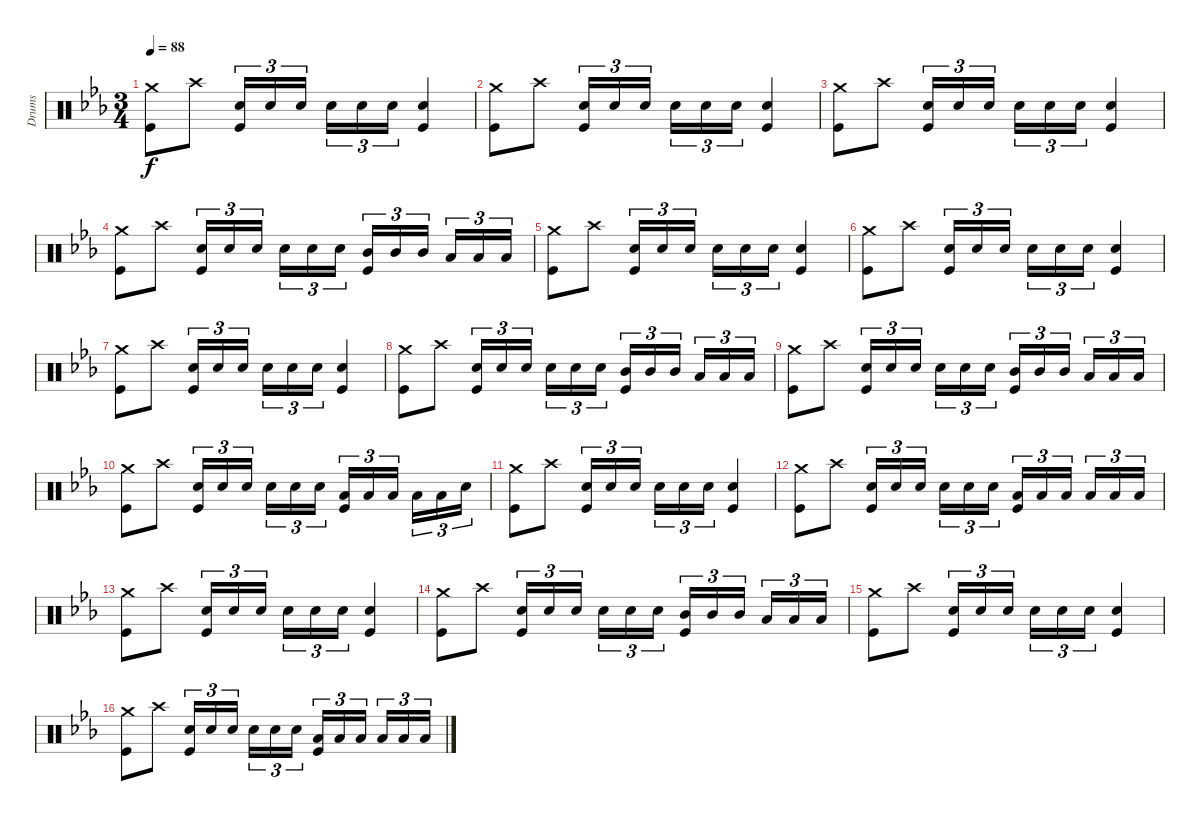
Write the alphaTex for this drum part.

\track ("Drums" "Drums") {instrument percussion}
\staff {score}
\articulation defaults
\ts (3 4)
\tempo 88
\clef neutral
\ks cminor
("Crash medium (hit)" "Kick (hit)").8{dy f} "Crash high (hit)".8 ("Snare (hit) 2" "Kick (hit)").16{tu (3 2)} "Snare (hit) 2".16{tu (3 2)} "Snare (hit) 2".16{tu (3 2) beam splitsecondary} "Snare (hit) 2".16{tu (3 2)} "Snare (hit) 2".16{tu (3 2)} "Snare (hit) 2".16{tu (3 2)} ("Snare (hit) 2" "Kick (hit)").4 |
("Crash medium (hit)" "Kick (hit)").8 "Crash high (hit)".8 ("Snare (hit) 2" "Kick (hit)").16{tu (3 2)} "Snare (hit) 2".16{tu (3 2)} "Snare (hit) 2".16{tu (3 2) beam splitsecondary} "Snare (hit) 2".16{tu (3 2)} "Snare (hit) 2".16{tu (3 2)} "Snare (hit) 2".16{tu (3 2)} ("Snare (hit) 2" "Kick (hit)").4 |
("Crash medium (hit)" "Kick (hit)").8 "Crash high (hit)".8 ("Snare (hit) 2" "Kick (hit)").16{tu (3 2)} "Snare (hit) 2".16{tu (3 2)} "Snare (hit) 2".16{tu (3 2) beam splitsecondary} "Snare (hit) 2".16{tu (3 2)} "Snare (hit) 2".16{tu (3 2)} "Snare (hit) 2".16{tu (3 2)} ("Snare (hit) 2" "Kick (hit)").4 |
("Crash medium (hit)" "Kick (hit)").8 "Crash high (hit)".8 ("Snare (hit) 2" "Kick (hit)").16{tu (3 2)} "Snare (hit) 2".16{tu (3 2)} "Snare (hit) 2".16{tu (3 2) beam splitsecondary} "Snare (hit) 2".16{tu (3 2)} "Snare (hit) 2".16{tu (3 2)} "Snare (hit) 2".16{tu (3 2)} ("Mid Tom (hit)" "Kick (hit)").16{tu (3 2)} "Mid Tom (hit)".16{tu (3 2)} "Mid Tom (hit)".16{tu (3 2) beam splitsecondary} "Low Tom (hit)".16{tu (3 2)} "Low Tom (hit)".16{tu (3 2)} "Low Tom (hit)".16{tu (3 2)} |
("Crash medium (hit)" "Kick (hit)").8 "Crash high (hit)".8 ("Snare (hit) 2" "Kick (hit)").16{tu (3 2)} "Snare (hit) 2".16{tu (3 2)} "Snare (hit) 2".16{tu (3 2) beam splitsecondary} "Snare (hit) 2".16{tu (3 2)} "Snare (hit) 2".16{tu (3 2)} "Snare (hit) 2".16{tu (3 2)} ("Snare (hit) 2" "Kick (hit)").4 |
("Crash medium (hit)" "Kick (hit)").8 "Crash high (hit)".8 ("Snare (hit) 2" "Kick (hit)").16{tu (3 2)} "Snare (hit) 2".16{tu (3 2)} "Snare (hit) 2".16{tu (3 2) beam splitsecondary} "Snare (hit) 2".16{tu (3 2)} "Snare (hit) 2".16{tu (3 2)} "Snare (hit) 2".16{tu (3 2)} ("Snare (hit) 2" "Kick (hit)").4 |
("Crash medium (hit)" "Kick (hit)").8 "Crash high (hit)".8 ("Snare (hit) 2" "Kick (hit)").16{tu (3 2)} "Snare (hit) 2".16{tu (3 2)} "Snare (hit) 2".16{tu (3 2) beam splitsecondary} "Snare (hit) 2".16{tu (3 2)} "Snare (hit) 2".16{tu (3 2)} "Snare (hit) 2".16{tu (3 2)} ("Snare (hit) 2" "Kick (hit)").4 |
("Crash medium (hit)" "Kick (hit)").8 "Crash high (hit)".8 ("Snare (hit) 2" "Kick (hit)").16{tu (3 2)} "Snare (hit) 2".16{tu (3 2)} "Snare (hit) 2".16{tu (3 2) beam splitsecondary} "Snare (hit) 2".16{tu (3 2)} "Snare (hit) 2".16{tu (3 2)} "Snare (hit) 2".16{tu (3 2)} ("Mid Tom (hit)" "Kick (hit)").16{tu (3 2)} "Mid Tom (hit)".16{tu (3 2)} "Mid Tom (hit)".16{tu (3 2) beam splitsecondary} "Low Tom (hit)".16{tu (3 2)} "Low Tom (hit)".16{tu (3 2)} "Low Tom (hit)".16{tu (3 2)} |
("Crash medium (hit)" "Kick (hit)").8 "Crash high (hit)".8 ("Snare (hit) 2" "Kick (hit)").16{tu (3 2)} "Snare (hit) 2".16{tu (3 2)} "Snare (hit) 2".16{tu (3 2) beam splitsecondary} "Snare (hit) 2".16{tu (3 2)} "Snare (hit) 2".16{tu (3 2)} "Snare (hit) 2".16{tu (3 2)} ("Mid Tom (hit)" "Kick (hit)").16{tu (3 2)} "Mid Tom (hit)".16{tu (3 2)} "Mid Tom (hit)".16{tu (3 2) beam splitsecondary} "Low Tom (hit)".16{tu (3 2)} "Low Tom (hit)".16{tu (3 2)} "Low Tom (hit)".16{tu (3 2)} |
("Crash medium (hit)" "Kick (hit)").8 "Crash high (hit)".8 ("Snare (hit) 2" "Kick (hit)").16{tu (3 2)} "Snare (hit) 2".16{tu (3 2)} "Snare (hit) 2".16{tu (3 2) beam splitsecondary} "Snare (hit) 2".16{tu (3 2)} "Snare (hit) 2".16{tu (3 2)} "Snare (hit) 2".16{tu (3 2)} ("Low Tom (hit)" "Kick (hit)").16{tu (3 2)} "Low Tom (hit)".16{tu (3 2)} "Low Tom (hit)".16{tu (3 2) beam splitsecondary} "Low Floor Tom (hit)".16{tu (3 2)} "Low Floor Tom (hit)".16{tu (3 2)} "Snare (hit)".16{tu (3 2)} |
("Crash medium (hit)" "Kick (hit)").8 "Crash high (hit)".8 ("Snare (hit) 2" "Kick (hit)").16{tu (3 2)} "Snare (hit) 2".16{tu (3 2)} "Snare (hit) 2".16{tu (3 2) beam splitsecondary} "Snare (hit) 2".16{tu (3 2)} "Snare (hit) 2".16{tu (3 2)} "Snare (hit) 2".16{tu (3 2)} ("Snare (hit) 2" "Kick (hit)").4 |
("Crash medium (hit)" "Kick (hit)").8 "Crash high (hit)".8 ("Snare (hit) 2" "Kick (hit)").16{tu (3 2)} "Snare (hit) 2".16{tu (3 2)} "Snare (hit) 2".16{tu (3 2) beam splitsecondary} "Snare (hit) 2".16{tu (3 2)} "Snare (hit) 2".16{tu (3 2)} "Snare (hit) 2".16{tu (3 2)} ("Low Tom (hit)" "Kick (hit)").16{tu (3 2)} "Low Tom (hit)".16{tu (3 2)} "Low Tom (hit)".16{tu (3 2) beam splitsecondary} "Low Floor Tom (hit)".16{tu (3 2)} "Low Floor Tom (hit)".16{tu (3 2)} "Low Floor Tom (hit)".16{tu (3 2)} |
("Crash medium (hit)" "Kick (hit)").8 "Crash high (hit)".8 ("Snare (hit) 2" "Kick (hit)").16{tu (3 2)} "Snare (hit) 2".16{tu (3 2)} "Snare (hit) 2".16{tu (3 2) beam splitsecondary} "Snare (hit) 2".16{tu (3 2)} "Snare (hit) 2".16{tu (3 2)} "Snare (hit) 2".16{tu (3 2)} ("Snare (hit) 2" "Kick (hit)").4 |
("Crash medium (hit)" "Kick (hit)").8 "Crash high (hit)".8 ("Snare (hit) 2" "Kick (hit)").16{tu (3 2)} "Snare (hit) 2".16{tu (3 2)} "Snare (hit) 2".16{tu (3 2) beam splitsecondary} "Snare (hit) 2".16{tu (3 2)} "Snare (hit) 2".16{tu (3 2)} "Snare (hit) 2".16{tu (3 2)} ("Mid Tom (hit)" "Kick (hit)").16{tu (3 2)} "Mid Tom (hit)".16{tu (3 2)} "Mid Tom (hit)".16{tu (3 2) beam splitsecondary} "Low Tom (hit)".16{tu (3 2)} "Low Tom (hit)".16{tu (3 2)} "Low Tom (hit)".16{tu (3 2)} |
("Crash medium (hit)" "Kick (hit)").8 "Crash high (hit)".8 ("Snare (hit) 2" "Kick (hit)").16{tu (3 2)} "Snare (hit) 2".16{tu (3 2)} "Snare (hit) 2".16{tu (3 2) beam splitsecondary} "Snare (hit) 2".16{tu (3 2)} "Snare (hit) 2".16{tu (3 2)} "Snare (hit) 2".16{tu (3 2)} ("Snare (hit) 2" "Kick (hit)").4 |
("Crash medium (hit)" "Kick (hit)").8 "Crash high (hit)".8 ("Snare (hit) 2" "Kick (hit)").16{tu (3 2)} "Snare (hit) 2".16{tu (3 2)} "Snare (hit) 2".16{tu (3 2) beam splitsecondary} "Snare (hit) 2".16{tu (3 2)} "Snare (hit) 2".16{tu (3 2)} "Snare (hit) 2".16{tu (3 2)} ("Low Tom (hit)" "Kick (hit)").16{tu (3 2)} "Low Tom (hit)".16{tu (3 2)} "Low Tom (hit)".16{tu (3 2) beam splitsecondary} "Low Floor Tom (hit)".16{tu (3 2)} "Low Floor Tom (hit)".16{tu (3 2)} "Low Floor Tom (hit)".16{tu (3 2)}
